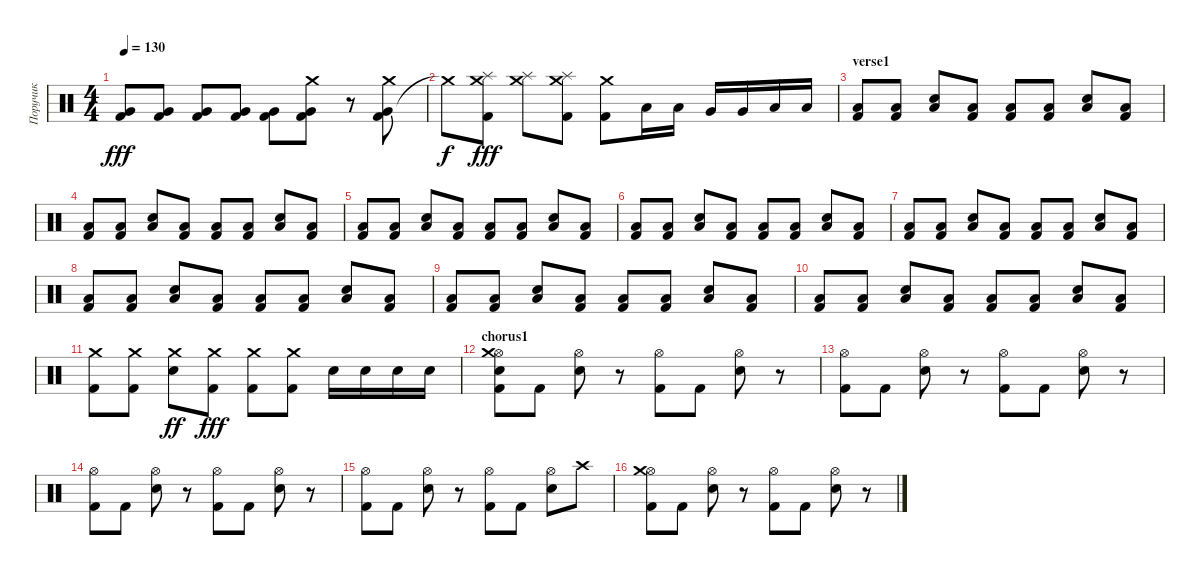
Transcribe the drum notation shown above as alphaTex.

\track ("Поручик" "Поручик") {instrument percussion}
\staff {score}
\articulation defaults
\ts (4 4)
\tempo 130
\clef neutral
\ks c
("Very Low Tom (hit)" "Kick (hit) 2").8{dy fff} ("Very Low Tom (hit)" "Kick (hit) 2").8 ("Very Low Tom (hit)" "Kick (hit) 2").8 ("Very Low Tom (hit)" "Kick (hit) 2").8 ("Very Low Tom (hit)" "Kick (hit) 2").8 ("Very Low Tom (hit)" "Kick (hit) 2" "Crash medium (hit)").8 r.8 ("Very Low Tom (hit)" "Kick (hit) 2" "Crash medium (hit)").8 |
"Crash medium (hit)"{t}.8{dy f} ("Kick (hit) 2" "Crash medium (hit)" "Splash (hit)").8{dy fff} ("Crash medium (hit)" "Splash (hit)").8 ("Kick (hit) 2" "Crash medium (hit)" "Splash (hit)").8 ("Kick (hit) 2" "Crash medium (hit)").8 "Low Tom (hit)".16 "Low Tom (hit)".16 "Very Low Tom (hit)".16 "Very Low Tom (hit)".16 "Low Floor Tom (hit)".16 "Low Floor Tom (hit)".16 |
\section ("" "verse1")
("Kick (hit) 2" "Low Tom (hit)").8 ("Kick (hit) 2" "Low Tom (hit)").8 ("Snare (hit) 2" "Low Tom (hit)").8 ("Kick (hit) 2" "Low Tom (hit)").8 ("Kick (hit) 2" "Low Tom (hit)").8 ("Kick (hit) 2" "Low Tom (hit)").8 ("Snare (hit) 2" "Low Tom (hit)").8 ("Kick (hit) 2" "Low Tom (hit)").8 |
("Kick (hit) 2" "Low Tom (hit)").8 ("Kick (hit) 2" "Low Tom (hit)").8 ("Snare (hit) 2" "Low Tom (hit)").8 ("Kick (hit) 2" "Low Tom (hit)").8 ("Kick (hit) 2" "Low Tom (hit)").8 ("Kick (hit) 2" "Low Tom (hit)").8 ("Snare (hit) 2" "Low Tom (hit)").8 ("Kick (hit) 2" "Low Tom (hit)").8 |
("Kick (hit) 2" "Low Tom (hit)").8 ("Kick (hit) 2" "Low Tom (hit)").8 ("Snare (hit) 2" "Low Tom (hit)").8 ("Kick (hit) 2" "Low Tom (hit)").8 ("Kick (hit) 2" "Low Tom (hit)").8 ("Kick (hit) 2" "Low Tom (hit)").8 ("Snare (hit) 2" "Low Tom (hit)").8 ("Kick (hit) 2" "Low Tom (hit)").8 |
("Kick (hit) 2" "Low Tom (hit)").8 ("Kick (hit) 2" "Low Tom (hit)").8 ("Snare (hit) 2" "Low Tom (hit)").8 ("Kick (hit) 2" "Low Tom (hit)").8 ("Kick (hit) 2" "Low Tom (hit)").8 ("Kick (hit) 2" "Low Tom (hit)").8 ("Snare (hit) 2" "Low Tom (hit)").8 ("Kick (hit) 2" "Low Tom (hit)").8 |
("Kick (hit) 2" "Low Tom (hit)").8 ("Kick (hit) 2" "Low Tom (hit)").8 ("Snare (hit) 2" "Low Tom (hit)").8 ("Kick (hit) 2" "Low Tom (hit)").8 ("Kick (hit) 2" "Low Tom (hit)").8 ("Kick (hit) 2" "Low Tom (hit)").8 ("Snare (hit) 2" "Low Tom (hit)").8 ("Kick (hit) 2" "Low Tom (hit)").8 |
("Kick (hit) 2" "Low Tom (hit)").8 ("Kick (hit) 2" "Low Tom (hit)").8 ("Snare (hit) 2" "Low Tom (hit)").8 ("Kick (hit) 2" "Low Tom (hit)").8 ("Kick (hit) 2" "Low Tom (hit)").8 ("Kick (hit) 2" "Low Tom (hit)").8 ("Snare (hit) 2" "Low Tom (hit)").8 ("Kick (hit) 2" "Low Tom (hit)").8 |
("Kick (hit) 2" "Low Tom (hit)").8 ("Kick (hit) 2" "Low Tom (hit)").8 ("Snare (hit) 2" "Low Tom (hit)").8 ("Kick (hit) 2" "Low Tom (hit)").8 ("Kick (hit) 2" "Low Tom (hit)").8 ("Kick (hit) 2" "Low Tom (hit)").8 ("Snare (hit) 2" "Low Tom (hit)").8 ("Kick (hit) 2" "Low Tom (hit)").8 |
("Kick (hit) 2" "Low Tom (hit)").8 ("Kick (hit) 2" "Low Tom (hit)").8 ("Snare (hit) 2" "Low Tom (hit)").8 ("Kick (hit) 2" "Low Tom (hit)").8 ("Kick (hit) 2" "Low Tom (hit)").8 ("Kick (hit) 2" "Low Tom (hit)").8 ("Snare (hit) 2" "Low Tom (hit)").8 ("Kick (hit) 2" "Low Tom (hit)").8 |
("Kick (hit) 2" "Crash medium (hit)").8 ("Kick (hit) 2" "Crash medium (hit)").8 ("Snare (hit) 2" "Crash medium (hit)").8{dy ff} ("Kick (hit) 2" "Crash medium (hit)").8{dy fff} ("Kick (hit) 2" "Crash medium (hit)").8 ("Kick (hit) 2" "Crash medium (hit)").8 "Snare (hit) 2".16 "Snare (hit) 2".16 "Snare (hit) 2".16 "Snare (hit) 2".16 |
\section ("" "chorus1")
("Kick (hit) 2" "Hi-Hat (open)" "Crash medium (hit)" "Snare (hit) 2").8 "Kick (hit) 2".8 ("Snare (hit) 2" "Hi-Hat (open)").8 r.8 ("Kick (hit) 2" "Hi-Hat (open)").8 "Kick (hit) 2".8 ("Snare (hit) 2" "Hi-Hat (open)").8 r.8 |
("Kick (hit) 2" "Hi-Hat (open)").8 "Kick (hit) 2".8 ("Snare (hit) 2" "Hi-Hat (open)").8 r.8 ("Kick (hit) 2" "Hi-Hat (open)").8 "Kick (hit) 2".8 ("Snare (hit) 2" "Hi-Hat (open)").8 r.8 |
("Kick (hit) 2" "Hi-Hat (open)").8 "Kick (hit) 2".8 ("Snare (hit) 2" "Hi-Hat (open)").8 r.8 ("Kick (hit) 2" "Hi-Hat (open)").8 "Kick (hit) 2".8 ("Snare (hit) 2" "Hi-Hat (open)").8 r.8 |
("Kick (hit) 2" "Hi-Hat (open)").8 "Kick (hit) 2".8 ("Snare (hit) 2" "Hi-Hat (open)").8 r.8 ("Kick (hit) 2" "Hi-Hat (open)").8 "Kick (hit) 2".8 ("Snare (hit) 2" "Hi-Hat (open)").8 "Crash high (hit)".8 |
("Kick (hit) 2" "Hi-Hat (open)" "Crash medium (hit)").8 "Kick (hit) 2".8 ("Snare (hit) 2" "Hi-Hat (open)").8 r.8 ("Kick (hit) 2" "Hi-Hat (open)").8 "Kick (hit) 2".8 ("Snare (hit) 2" "Hi-Hat (open)").8 r.8
